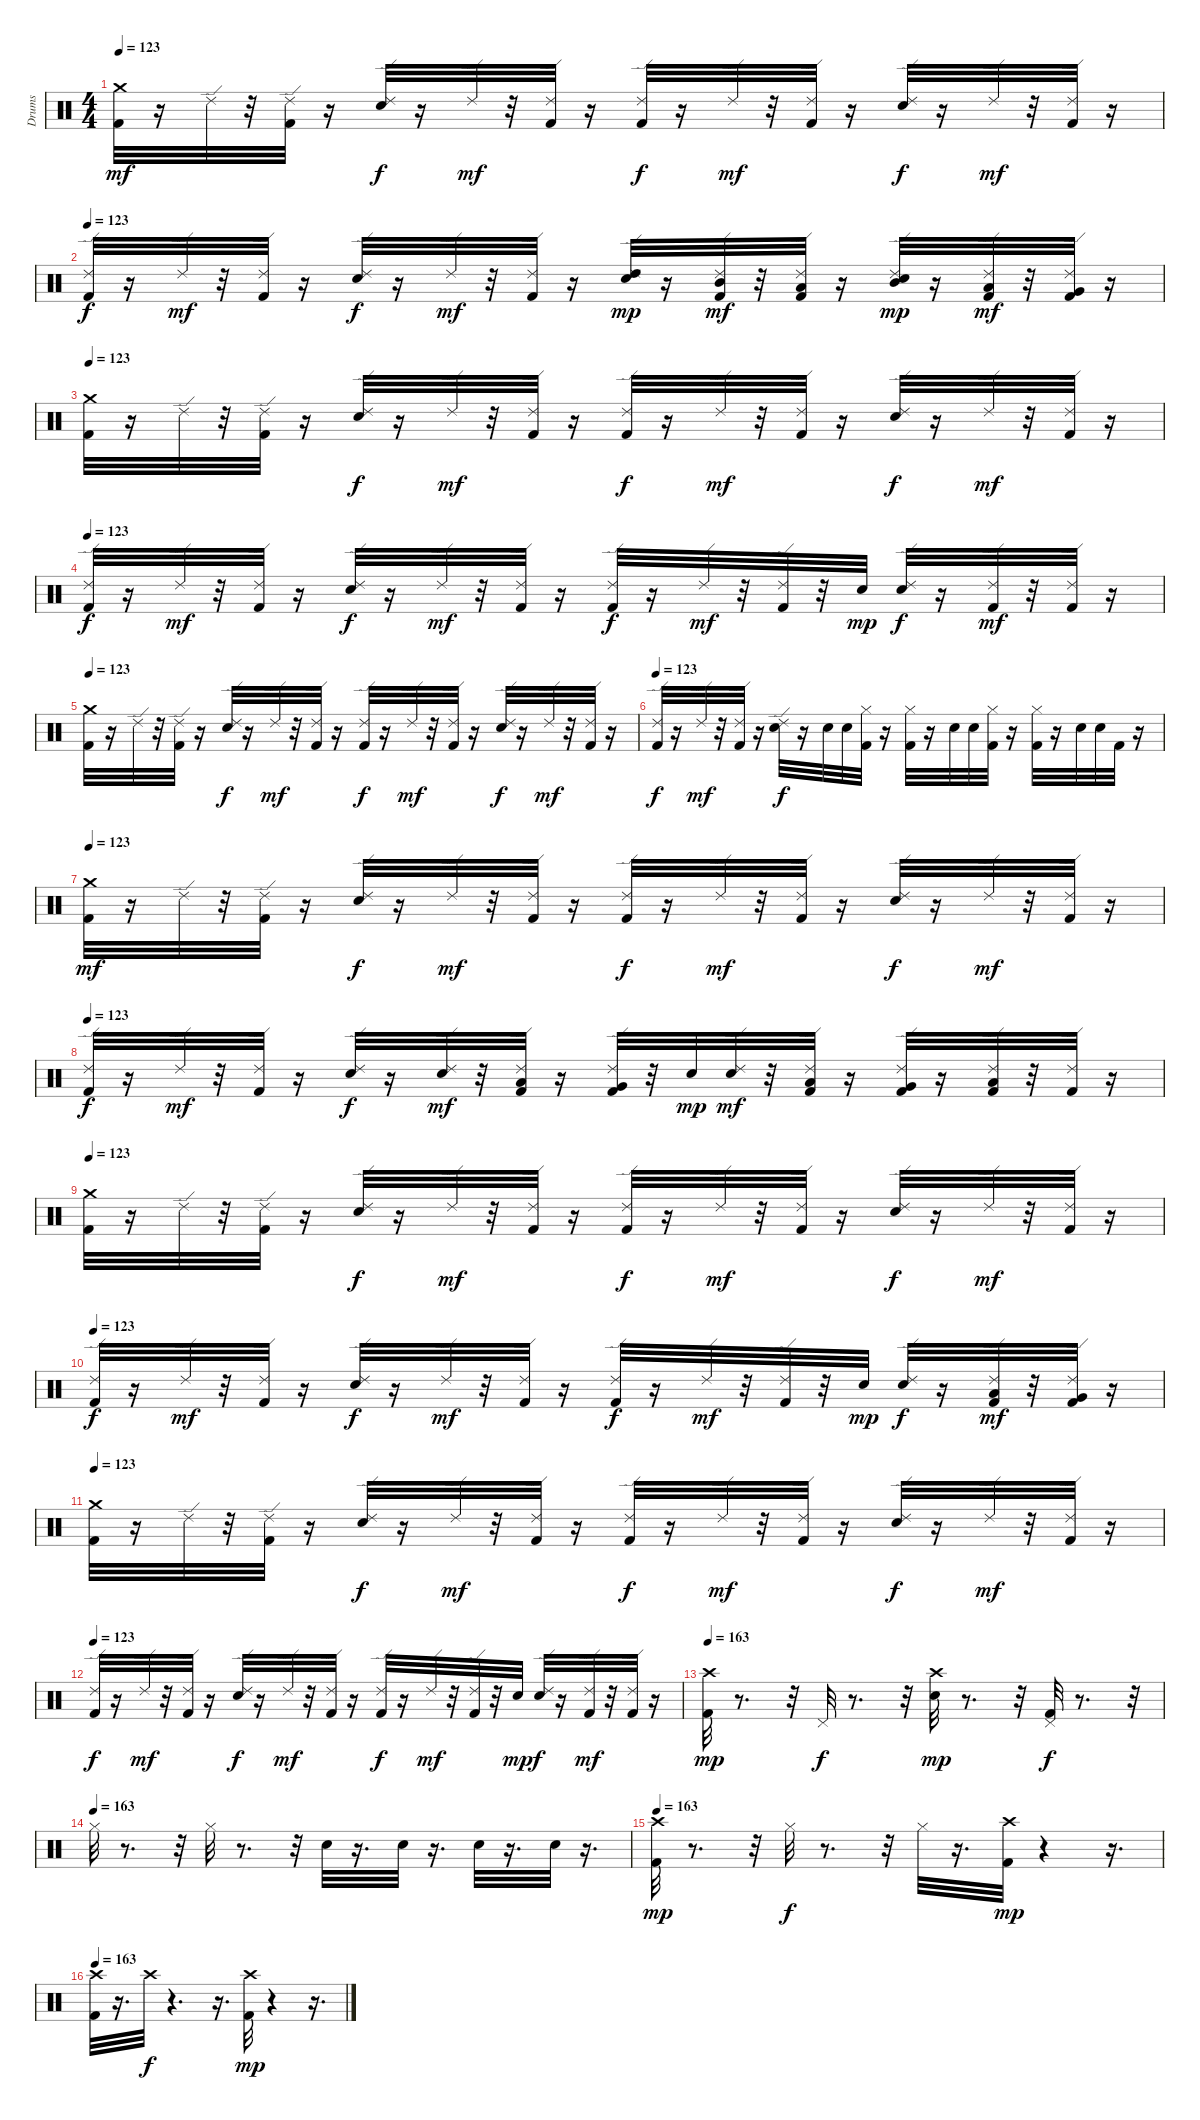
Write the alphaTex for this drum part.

\track ("Drums" "Drums") {instrument percussion}
\staff {score}
\articulation defaults
\ts (4 4)
\tempo 123
\clef neutral
\ks c
("Kick (hit) 2" "Crash medium (hit)").32{dy mf} r.16 "Ride (edge) 2".32 r.32 ("Kick (hit) 2" "Ride (edge) 2").32 r.16 ("Snare (hit) 2" "Ride (edge) 2").32{dy f} r.16 "Ride (edge) 2".32{dy mf} r.32 ("Kick (hit) 2" "Ride (edge) 2").32 r.16 ("Kick (hit) 2" "Ride (edge) 2").32{dy f} r.16 "Ride (edge) 2".32{dy mf} r.32 ("Kick (hit) 2" "Ride (edge) 2").32 r.16 ("Snare (hit) 2" "Ride (edge) 2").32{dy f} r.16 "Ride (edge) 2".32{dy mf} r.32 ("Kick (hit) 2" "Ride (edge) 2").32 r.16 |
\tempo 123
("Kick (hit) 2" "Ride (edge) 2").32{dy f} r.16 "Ride (edge) 2".32{dy mf} r.32 ("Kick (hit) 2" "Ride (edge) 2").32 r.16 ("Snare (hit) 2" "Ride (edge) 2").32{dy f} r.16 "Ride (edge) 2".32{dy mf} r.32 ("Kick (hit) 2" "Ride (edge) 2").32 r.16 ("Snare (hit) 2" "High Tom (hit)" "Ride (edge) 2").32{dy mp} r.16 ("Kick (hit) 2" "Mid Tom (hit)" "Ride (edge) 2").32{dy mf} r.32 ("Kick (hit) 2" "Low Tom (hit)" "Ride (edge) 2").32 r.16 ("Snare (hit) 2" "Mid Tom (hit)" "Ride (edge) 2").32{dy mp} r.16 ("Kick (hit) 2" "Low Tom (hit)" "Ride (edge) 2").32{dy mf} r.32 ("Kick (hit) 2" "Very Low Tom (hit)" "Ride (edge) 2").32 r.16 |
\tempo 123
("Kick (hit) 2" "Crash medium (hit)").32 r.16 "Ride (edge) 2".32 r.32 ("Kick (hit) 2" "Ride (edge) 2").32 r.16 ("Snare (hit) 2" "Ride (edge) 2").32{dy f} r.16 "Ride (edge) 2".32{dy mf} r.32 ("Kick (hit) 2" "Ride (edge) 2").32 r.16 ("Kick (hit) 2" "Ride (edge) 2").32{dy f} r.16 "Ride (edge) 2".32{dy mf} r.32 ("Kick (hit) 2" "Ride (edge) 2").32 r.16 ("Snare (hit) 2" "Ride (edge) 2").32{dy f} r.16 "Ride (edge) 2".32{dy mf} r.32 ("Kick (hit) 2" "Ride (edge) 2").32 r.16 |
\tempo 123
("Kick (hit) 2" "Ride (edge) 2").32{dy f} r.16 "Ride (edge) 2".32{dy mf} r.32 ("Kick (hit) 2" "Ride (edge) 2").32 r.16 ("Snare (hit) 2" "Ride (edge) 2").32{dy f} r.16 "Ride (edge) 2".32{dy mf} r.32 ("Kick (hit) 2" "Ride (edge) 2").32 r.16 ("Kick (hit) 2" "Ride (edge) 2").32{dy f} r.16 "Ride (edge) 2".32{dy mf} r.32 ("Kick (hit) 2" "Ride (edge) 2").32 r.32 "Snare (hit) 2".32{dy mp} ("Snare (hit) 2" "Ride (edge) 2").32{dy f} r.16 ("Kick (hit) 2" "Ride (edge) 2").32{dy mf} r.32 ("Kick (hit) 2" "Ride (edge) 2").32 r.16 |
\tempo 123
("Kick (hit) 2" "Crash medium (hit)").32 r.16 "Ride (edge) 2".32 r.32 ("Kick (hit) 2" "Ride (edge) 2").32 r.16 ("Snare (hit) 2" "Ride (edge) 2").32{dy f} r.16 "Ride (edge) 2".32{dy mf} r.32 ("Kick (hit) 2" "Ride (edge) 2").32 r.16 ("Kick (hit) 2" "Ride (edge) 2").32{dy f} r.16 "Ride (edge) 2".32{dy mf} r.32 ("Kick (hit) 2" "Ride (edge) 2").32 r.16 ("Snare (hit) 2" "Ride (edge) 2").32{dy f} r.16 "Ride (edge) 2".32{dy mf} r.32 ("Kick (hit) 2" "Ride (edge) 2").32 r.16 |
\tempo 123
("Kick (hit) 2" "Ride (edge) 2").32{dy f} r.16 "Ride (edge) 2".32{dy mf} r.32 ("Kick (hit) 2" "Ride (edge) 2").32 r.16 ("Snare (hit) 2" "Ride (edge) 2").32{dy f} r.16 "Snare (hit) 2".32 "Snare (hit) 2".32 ("Kick (hit) 2" "Hi-Hat (closed)").32 r.16 ("Kick (hit) 2" "Hi-Hat (closed)").32 r.16 "Snare (hit) 2".32 "Snare (hit) 2".32 ("Kick (hit) 2" "Hi-Hat (closed)").32 r.16 ("Kick (hit) 2" "Hi-Hat (closed)").32 r.16 "Snare (hit) 2".32 "Snare (hit) 2".32 "Kick (hit) 2".32 r.16 |
\tempo 123
("Kick (hit) 2" "Crash medium (hit)").32{dy mf} r.16 "Ride (edge) 2".32 r.32 ("Kick (hit) 2" "Ride (edge) 2").32 r.16 ("Snare (hit) 2" "Ride (edge) 2").32{dy f} r.16 "Ride (edge) 2".32{dy mf} r.32 ("Kick (hit) 2" "Ride (edge) 2").32 r.16 ("Kick (hit) 2" "Ride (edge) 2").32{dy f} r.16 "Ride (edge) 2".32{dy mf} r.32 ("Kick (hit) 2" "Ride (edge) 2").32 r.16 ("Snare (hit) 2" "Ride (edge) 2").32{dy f} r.16 "Ride (edge) 2".32{dy mf} r.32 ("Kick (hit) 2" "Ride (edge) 2").32 r.16 |
\tempo 123
("Kick (hit) 2" "Ride (edge) 2").32{dy f} r.16 "Ride (edge) 2".32{dy mf} r.32 ("Kick (hit) 2" "Ride (edge) 2").32 r.16 ("Snare (hit) 2" "Ride (edge) 2").32{dy f} r.16 ("Snare (hit) 2" "Ride (edge) 2").32{dy mf} r.32 ("Kick (hit) 2" "Low Tom (hit)" "Ride (edge) 2").32 r.16 ("Kick (hit) 2" "Very Low Tom (hit)" "Ride (edge) 2").32 r.32 "Snare (hit) 2".32{dy mp} ("Snare (hit) 2" "Ride (edge) 2").32{dy mf} r.32 ("Kick (hit) 2" "Low Tom (hit)" "Ride (edge) 2").32 r.16 ("Kick (hit) 2" "Very Low Tom (hit)" "Ride (edge) 2").32 r.16 ("Kick (hit) 2" "Low Floor Tom (hit)" "Ride (edge) 2").32 r.32 ("Kick (hit) 2" "Ride (edge) 2").32 r.16 |
\tempo 123
("Kick (hit) 2" "Crash medium (hit)").32 r.16 "Ride (edge) 2".32 r.32 ("Kick (hit) 2" "Ride (edge) 2").32 r.16 ("Snare (hit) 2" "Ride (edge) 2").32{dy f} r.16 "Ride (edge) 2".32{dy mf} r.32 ("Kick (hit) 2" "Ride (edge) 2").32 r.16 ("Kick (hit) 2" "Ride (edge) 2").32{dy f} r.16 "Ride (edge) 2".32{dy mf} r.32 ("Kick (hit) 2" "Ride (edge) 2").32 r.16 ("Snare (hit) 2" "Ride (edge) 2").32{dy f} r.16 "Ride (edge) 2".32{dy mf} r.32 ("Kick (hit) 2" "Ride (edge) 2").32 r.16 |
\tempo 123
("Kick (hit) 2" "Ride (edge) 2").32{dy f} r.16 "Ride (edge) 2".32{dy mf} r.32 ("Kick (hit) 2" "Ride (edge) 2").32 r.16 ("Snare (hit) 2" "Ride (edge) 2").32{dy f} r.16 "Ride (edge) 2".32{dy mf} r.32 ("Kick (hit) 2" "Ride (edge) 2").32 r.16 ("Kick (hit) 2" "Ride (edge) 2").32{dy f} r.16 "Ride (edge) 2".32{dy mf} r.32 ("Kick (hit) 2" "Ride (edge) 2").32 r.32 "Snare (hit) 2".32{dy mp} ("Snare (hit) 2" "Ride (edge) 2").32{dy f} r.16 ("Kick (hit) 2" "Low Tom (hit)" "Ride (edge) 2").32{dy mf} r.32 ("Kick (hit) 2" "Very Low Tom (hit)" "Ride (edge) 2").32 r.16 |
\tempo 123
("Kick (hit) 2" "Crash medium (hit)").32 r.16 "Ride (edge) 2".32 r.32 ("Kick (hit) 2" "Ride (edge) 2").32 r.16 ("Snare (hit) 2" "Ride (edge) 2").32{dy f} r.16 "Ride (edge) 2".32{dy mf} r.32 ("Kick (hit) 2" "Ride (edge) 2").32 r.16 ("Kick (hit) 2" "Ride (edge) 2").32{dy f} r.16 "Ride (edge) 2".32{dy mf} r.32 ("Kick (hit) 2" "Ride (edge) 2").32 r.16 ("Snare (hit) 2" "Ride (edge) 2").32{dy f} r.16 "Ride (edge) 2".32{dy mf} r.32 ("Kick (hit) 2" "Ride (edge) 2").32 r.16 |
\tempo 123
("Kick (hit) 2" "Ride (edge) 2").32{dy f} r.16 "Ride (edge) 2".32{dy mf} r.32 ("Kick (hit) 2" "Ride (edge) 2").32 r.16 ("Snare (hit) 2" "Ride (edge) 2").32{dy f} r.16 "Ride (edge) 2".32{dy mf} r.32 ("Kick (hit) 2" "Ride (edge) 2").32 r.16 ("Kick (hit) 2" "Ride (edge) 2").32{dy f} r.16 "Ride (edge) 2".32{dy mf} r.32 ("Kick (hit) 2" "Ride (edge) 2").32 r.32 "Snare (hit) 2".32{dy mp} ("Snare (hit) 2" "Ride (edge) 2").32{dy f} r.16 ("Kick (hit) 2" "Ride (edge) 2").32{dy mf} r.32 ("Kick (hit) 2" "Ride (edge) 2").32 r.16 |
\tempo 163
("Kick (hit) 2" "Crash high (hit)").32{dy mp} r.8{d} r.32 "Pedal Hi-Hat (hit)".32{dy f} r.8{d} r.32 ("Snare (hit) 2" "Crash high (hit)").32{dy mp} r.8{d} r.32 ("Kick (hit) 2" "Pedal Hi-Hat (hit)").32{dy f} r.8{d} r.32 |
\tempo (163)
"Hi-Hat (closed)".32 r.8{d} r.32 "Hi-Hat (closed)".32 r.8{d} r.32 "Snare (hit) 2".32 r.16{d} "Snare (hit) 2".32 r.16{d} "Snare (hit) 2".32 r.16{d} "Snare (hit) 2".32 r.16{d} |
\tempo 163
("Kick (hit) 2" "Crash high (hit)").32{dy mp} r.8{d} r.32 "Hi-Hat (closed)".32{dy f} r.8{d} r.32 "Hi-Hat (closed)".32 r.16{d} ("Kick (hit) 2" "Crash high (hit)").32{dy mp} r.4 r.16{d} |
\tempo 163
("Kick (hit) 2" "Crash high (hit)").32 r.16{d} "Crash high (hit)".32{dy f} r.4{d} r.16{d} ("Kick (hit) 2" "Crash high (hit)").32{dy mp} r.4 r.16{d}
